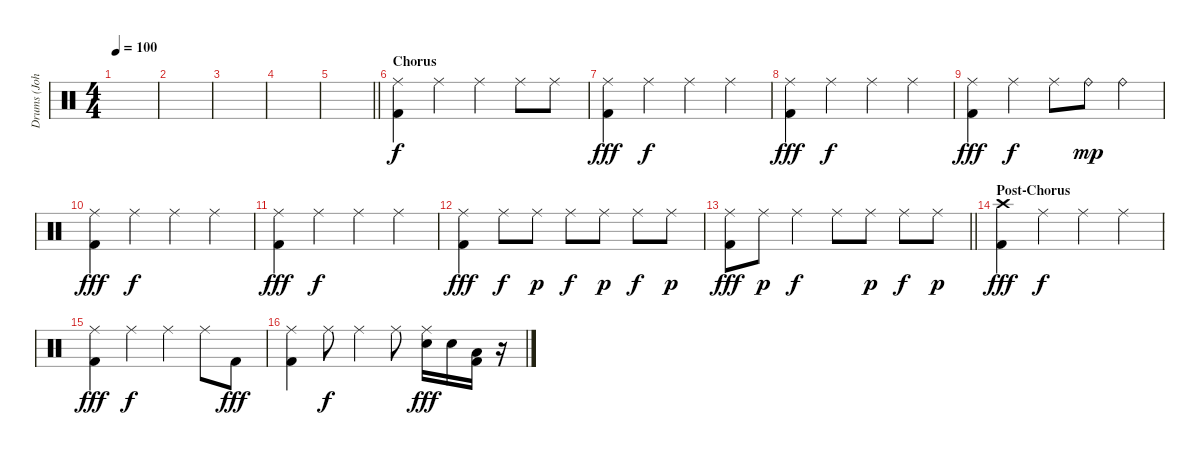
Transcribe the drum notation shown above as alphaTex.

\track ("Drums (John Siomos)" "Drums (Joh") {instrument percussion}
\staff {score}
\articulation defaults
\ts (4 4)
\tempo 100
\clef neutral
\ks c
|
|
|
|
\barLineRight lightlight
|
\section ("" "Chorus")
("Ride (middle)" "Kick (hit) 2").4 "Ride (middle)".4{dy f} "Ride (middle)".4 "Ride (middle)".8 "Ride (middle)".8 |
("Ride (middle)" "Kick (hit) 2").4{dy fff} "Ride (middle)".4{dy f} "Ride (middle)".4 "Ride (middle)".4 |
("Ride (middle)" "Kick (hit) 2").4{dy fff} "Ride (middle)".4{dy f} "Ride (middle)".4 "Ride (middle)".4 |
("Ride (middle)" "Kick (hit) 2").4{dy fff} "Ride (middle)".4{dy f} "Ride (middle)".8 "Ride (bell)".8{dy mp} "Ride (bell)".4 |
("Ride (middle)" "Kick (hit) 2").4{dy fff} "Ride (middle)".4{dy f} "Ride (middle)".4 "Ride (middle)".4 |
("Ride (middle)" "Kick (hit) 2").4{dy fff} "Ride (middle)".4{dy f} "Ride (middle)".4 "Ride (middle)".4 |
("Ride (middle)" "Kick (hit) 2").4{dy fff} "Ride (middle)".8{dy f} "Ride (middle)".8{dy p} "Ride (middle)".8{dy f} "Ride (middle)".8{dy p} "Ride (middle)".8{dy f} "Ride (middle)".8{dy p} |
\barLineRight lightlight
("Ride (middle)" "Kick (hit) 2").8{dy fff} "Ride (middle)".8{dy p} "Ride (middle)".4{dy f} "Ride (middle)".8 "Ride (middle)".8{dy p} "Ride (middle)".8{dy f} "Ride (middle)".8{dy p} |
\section ("" "Post-Chorus")
("Crash high (hit)" "Kick (hit) 2").4{dy fff} "Ride (middle)".4{dy f} "Ride (middle)".4 "Ride (middle)".4 |
("Ride (middle)" "Kick (hit) 2").4{dy fff} "Ride (middle)".4{dy f} "Ride (middle)".4 "Ride (middle)".8 "Kick (hit) 2".8{dy fff} |
("Ride (middle)" "Kick (hit) 2").4 "Ride (middle)".8{dy f} "Ride (middle)".4 "Ride (middle)".8 ("Ride (middle)" "Snare (hit) 2").16{dy fff} "Snare (hit) 2".16 ("Low Tom (hit)" "Kick (hit) 2").16 r.16
